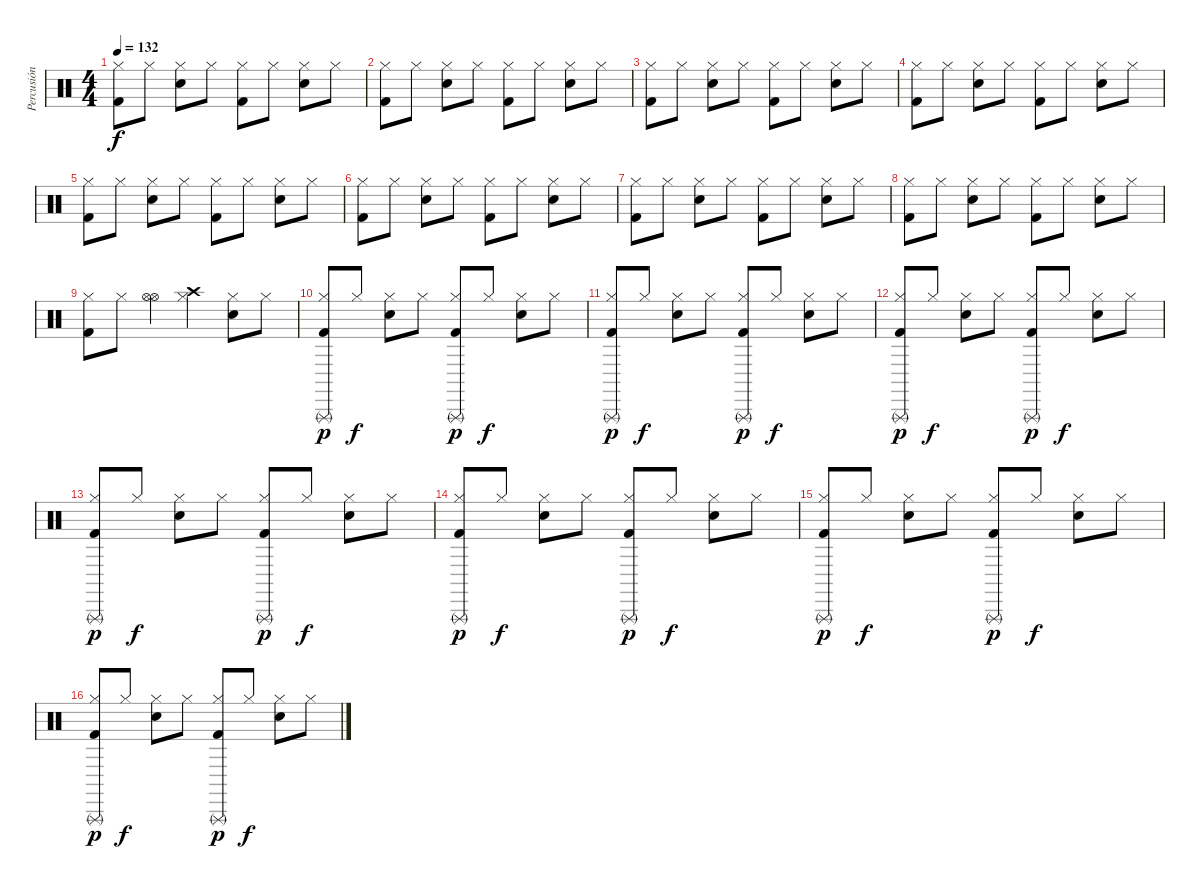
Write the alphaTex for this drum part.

\track ("Percusión" "Percusión") {instrument percussion}
\staff {score}
\articulation defaults
\ts (4 4)
\tempo 132
\clef neutral
\ks c
("Hi-Hat (closed)" "Kick (hit) 2").8{dy f} "Hi-Hat (closed)".8 ("Hi-Hat (closed)" "Electric Snare (hit)").8 "Hi-Hat (closed)".8 ("Hi-Hat (closed)" "Kick (hit) 2").8 "Hi-Hat (closed)".8 ("Hi-Hat (closed)" "Electric Snare (hit)").8 "Hi-Hat (closed)".8 |
("Hi-Hat (closed)" "Kick (hit) 2").8 "Hi-Hat (closed)".8 ("Hi-Hat (closed)" "Electric Snare (hit)").8 "Hi-Hat (closed)".8 ("Hi-Hat (closed)" "Kick (hit) 2").8 "Hi-Hat (closed)".8 ("Hi-Hat (closed)" "Electric Snare (hit)").8 "Hi-Hat (closed)".8 |
("Hi-Hat (closed)" "Kick (hit) 2").8 "Hi-Hat (closed)".8 ("Hi-Hat (closed)" "Electric Snare (hit)").8 "Hi-Hat (closed)".8 ("Hi-Hat (closed)" "Kick (hit) 2").8 "Hi-Hat (closed)".8 ("Hi-Hat (closed)" "Electric Snare (hit)").8 "Hi-Hat (closed)".8 |
("Hi-Hat (closed)" "Kick (hit) 2").8 "Hi-Hat (closed)".8 ("Hi-Hat (closed)" "Electric Snare (hit)").8 "Hi-Hat (closed)".8 ("Hi-Hat (closed)" "Kick (hit) 2").8 "Hi-Hat (closed)".8 ("Hi-Hat (closed)" "Electric Snare (hit)").8 "Hi-Hat (closed)".8 |
("Hi-Hat (closed)" "Kick (hit) 2").8 "Hi-Hat (closed)".8 ("Hi-Hat (closed)" "Electric Snare (hit)").8 "Hi-Hat (closed)".8 ("Hi-Hat (closed)" "Kick (hit) 2").8 "Hi-Hat (closed)".8 ("Hi-Hat (closed)" "Electric Snare (hit)").8 "Hi-Hat (closed)".8 |
("Hi-Hat (closed)" "Kick (hit) 2").8 "Hi-Hat (closed)".8 ("Hi-Hat (closed)" "Electric Snare (hit)").8 "Hi-Hat (closed)".8 ("Hi-Hat (closed)" "Kick (hit) 2").8 "Hi-Hat (closed)".8 ("Hi-Hat (closed)" "Electric Snare (hit)").8 "Hi-Hat (closed)".8 |
("Hi-Hat (closed)" "Kick (hit) 2").8 "Hi-Hat (closed)".8 ("Hi-Hat (closed)" "Electric Snare (hit)").8 "Hi-Hat (closed)".8 ("Hi-Hat (closed)" "Kick (hit) 2").8 "Hi-Hat (closed)".8 ("Hi-Hat (closed)" "Electric Snare (hit)").8 "Hi-Hat (closed)".8 |
("Hi-Hat (closed)" "Kick (hit) 2").8 "Hi-Hat (closed)".8 ("Hi-Hat (closed)" "Electric Snare (hit)").8 "Hi-Hat (closed)".8 ("Hi-Hat (closed)" "Kick (hit) 2").8 "Hi-Hat (closed)".8 ("Hi-Hat (closed)" "Electric Snare (hit)").8 "Hi-Hat (closed)".8 |
("Hi-Hat (closed)" "Kick (hit) 2").8 "Hi-Hat (closed)".8 ("Hi-Hat (open)" "Hi-Hat (open)").4 ("Crash high (hit)" "Hi-Hat (closed)").4 ("Hi-Hat (closed)" "Electric Snare (hit)").8 "Hi-Hat (closed)".8 |
("Triangle (rnute)" "Hi-Hat (closed)" "Kick (hit) 2").8{dy p} "Hi-Hat (closed)".8{dy f} ("Hi-Hat (closed)" "Electric Snare (hit)").8 "Hi-Hat (closed)".8 ("Triangle (rnute)" "Hi-Hat (closed)" "Kick (hit) 2").8{dy p} "Hi-Hat (closed)".8{dy f} ("Hi-Hat (closed)" "Electric Snare (hit)").8 "Hi-Hat (closed)".8 |
("Triangle (rnute)" "Hi-Hat (closed)" "Kick (hit) 2").8{dy p} "Hi-Hat (closed)".8{dy f} ("Hi-Hat (closed)" "Electric Snare (hit)").8 "Hi-Hat (closed)".8 ("Triangle (rnute)" "Hi-Hat (closed)" "Kick (hit) 2").8{dy p} "Hi-Hat (closed)".8{dy f} ("Hi-Hat (closed)" "Electric Snare (hit)").8 "Hi-Hat (closed)".8 |
("Triangle (rnute)" "Hi-Hat (closed)" "Kick (hit) 2").8{dy p} "Hi-Hat (closed)".8{dy f} ("Hi-Hat (closed)" "Electric Snare (hit)").8 "Hi-Hat (closed)".8 ("Triangle (rnute)" "Hi-Hat (closed)" "Kick (hit) 2").8{dy p} "Hi-Hat (closed)".8{dy f} ("Hi-Hat (closed)" "Electric Snare (hit)").8 "Hi-Hat (closed)".8 |
("Triangle (rnute)" "Hi-Hat (closed)" "Kick (hit) 2").8{dy p} "Hi-Hat (closed)".8{dy f} ("Hi-Hat (closed)" "Electric Snare (hit)").8 "Hi-Hat (closed)".8 ("Triangle (rnute)" "Hi-Hat (closed)" "Kick (hit) 2").8{dy p} "Hi-Hat (closed)".8{dy f} ("Hi-Hat (closed)" "Electric Snare (hit)").8 "Hi-Hat (closed)".8 |
("Triangle (rnute)" "Hi-Hat (closed)" "Kick (hit) 2").8{dy p} "Hi-Hat (closed)".8{dy f} ("Hi-Hat (closed)" "Electric Snare (hit)").8 "Hi-Hat (closed)".8 ("Triangle (rnute)" "Hi-Hat (closed)" "Kick (hit) 2").8{dy p} "Hi-Hat (closed)".8{dy f} ("Hi-Hat (closed)" "Electric Snare (hit)").8 "Hi-Hat (closed)".8 |
("Triangle (rnute)" "Hi-Hat (closed)" "Kick (hit) 2").8{dy p} "Hi-Hat (closed)".8{dy f} ("Hi-Hat (closed)" "Electric Snare (hit)").8 "Hi-Hat (closed)".8 ("Triangle (rnute)" "Hi-Hat (closed)" "Kick (hit) 2").8{dy p} "Hi-Hat (closed)".8{dy f} ("Hi-Hat (closed)" "Electric Snare (hit)").8 "Hi-Hat (closed)".8 |
("Triangle (rnute)" "Hi-Hat (closed)" "Kick (hit) 2").8{dy p} "Hi-Hat (closed)".8{dy f} ("Hi-Hat (closed)" "Electric Snare (hit)").8 "Hi-Hat (closed)".8 ("Triangle (rnute)" "Hi-Hat (closed)" "Kick (hit) 2").8{dy p} "Hi-Hat (closed)".8{dy f} ("Hi-Hat (closed)" "Electric Snare (hit)").8 "Hi-Hat (closed)".8
